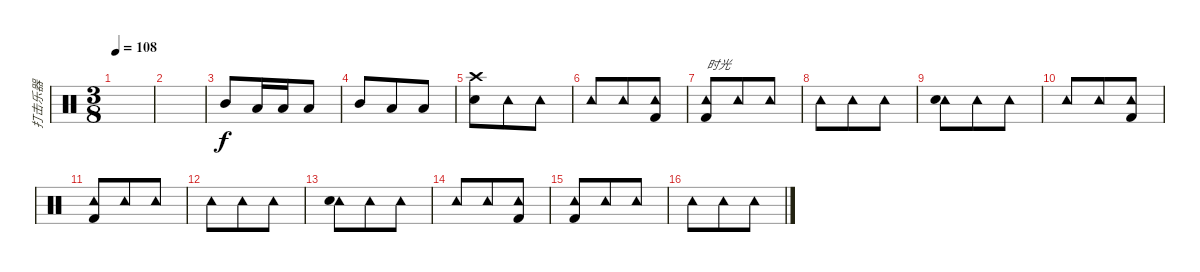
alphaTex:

\track ("打击乐器" "打击乐器") {instrument percussion}
\staff {score}
\articulation defaults
\ts (3 8)
\tempo 108
\clef neutral
\ks c
|
|
"Mid Tom (hit)".8 "Low Tom (hit)".16 "Low Floor Tom (hit)".16 "Low Floor Tom (hit)".8 |
"Mid Tom (hit)".8 "Low Tom (hit)".8 "Low Floor Tom (hit)".8 |
("Crash high (hit)" "Snare (hit) 2").8 "Tambourine (hit)".8 "Tambourine (hit)".8 |
"Tambourine (hit)".8 "Tambourine (hit)".8 ("Tambourine (hit)" "Kick (hit) 2").8 |
("Tambourine (hit)" "Kick (hit) 2").8{txt "时光"} "Tambourine (hit)".8 "Tambourine (hit)".8 |
"Tambourine (hit)".8 "Tambourine (hit)".8 "Tambourine (hit)".8 |
("Tambourine (hit)" "Snare (hit) 2").8 "Tambourine (hit)".8 "Tambourine (hit)".8 |
"Tambourine (hit)".8 "Tambourine (hit)".8 ("Tambourine (hit)" "Kick (hit) 2").8 |
("Tambourine (hit)" "Kick (hit) 2").8 "Tambourine (hit)".8 "Tambourine (hit)".8 |
"Tambourine (hit)".8 "Tambourine (hit)".8 "Tambourine (hit)".8 |
("Tambourine (hit)" "Snare (hit) 2").8 "Tambourine (hit)".8 "Tambourine (hit)".8 |
"Tambourine (hit)".8 "Tambourine (hit)".8 ("Tambourine (hit)" "Kick (hit) 2").8 |
("Tambourine (hit)" "Kick (hit) 2").8 "Tambourine (hit)".8 "Tambourine (hit)".8 |
"Tambourine (hit)".8 "Tambourine (hit)".8 "Tambourine (hit)".8
